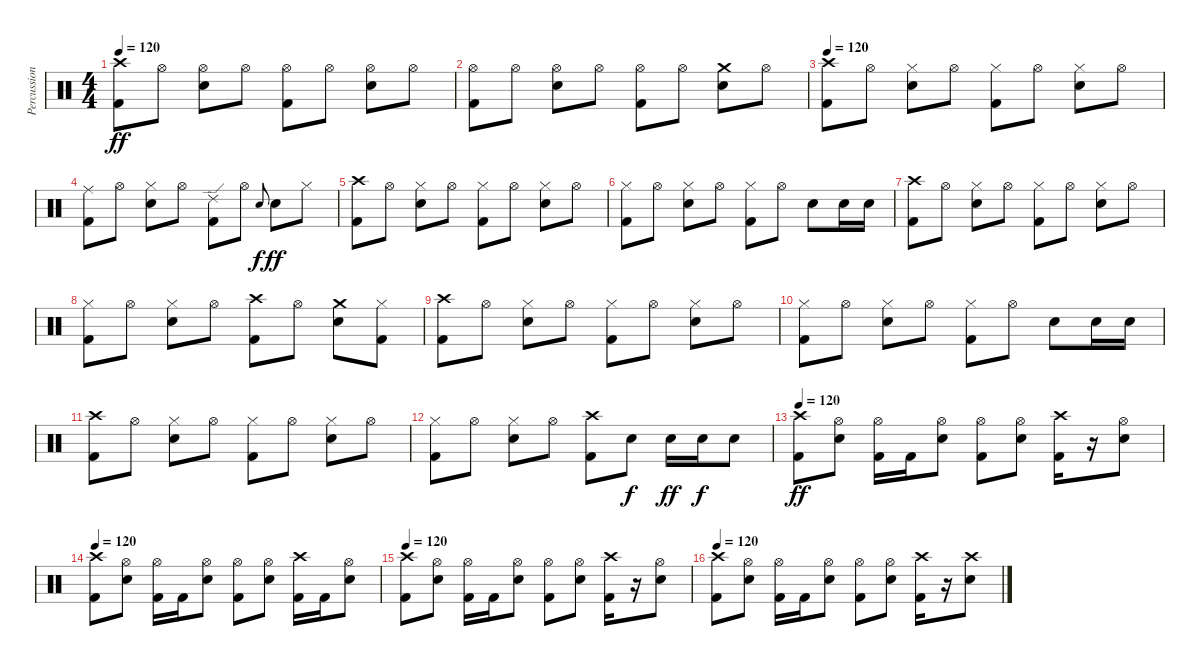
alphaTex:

\track ("Percussion" "Percussion") {instrument percussion}
\staff {score}
\articulation defaults
\ts (4 4)
\tempo 120
\clef neutral
\ks c
("Crash high (hit)" "Kick (hit) 2").8{dy ff} "Hi-Hat (open)".8 ("Hi-Hat (open)" "Snare (hit) 2").8 "Hi-Hat (open)".8 ("Hi-Hat (open)" "Kick (hit) 2").8 "Hi-Hat (open)".8 ("Hi-Hat (open)" "Snare (hit) 2").8 "Hi-Hat (open)".8 |
("Hi-Hat (open)" "Kick (hit) 2").8 "Hi-Hat (open)".8 ("Hi-Hat (open)" "Snare (hit) 2").8 "Hi-Hat (open)".8 ("Hi-Hat (open)" "Kick (hit) 2").8 "Hi-Hat (open)".8 ("Crash medium (hit)" "Snare (hit) 2").8 "Hi-Hat (open)".8 |
\tempo 120
("Crash high (hit)" "Kick (hit) 2").8 "Hi-Hat (open)".8 ("Hi-Hat (closed)" "Snare (hit) 2").8 "Hi-Hat (open)".8 ("Hi-Hat (closed)" "Kick (hit) 2").8 "Hi-Hat (open)".8 ("Hi-Hat (closed)" "Snare (hit) 2").8 "Hi-Hat (open)".8 |
("Ride (middle)" "Kick (hit) 2").8 "Hi-Hat (open)".8 ("Hi-Hat (closed)" "Snare (hit) 2").8 "Hi-Hat (open)".8 ("Ride (edge) 2" "Kick (hit) 2").8 "Hi-Hat (open)".8 "Snare (hit) 2".8{gr onbeat dy f} "Snare (hit) 2".8{dy ff} "Hi-Hat (closed)".8 |
("Crash high (hit)" "Kick (hit) 2").8 "Hi-Hat (open)".8 ("Hi-Hat (closed)" "Snare (hit) 2").8 "Hi-Hat (open)".8 ("Hi-Hat (closed)" "Kick (hit) 2").8 "Hi-Hat (open)".8 ("Hi-Hat (closed)" "Snare (hit) 2").8 "Hi-Hat (open)".8 |
("Hi-Hat (closed)" "Kick (hit) 2").8 "Hi-Hat (open)".8 ("Hi-Hat (closed)" "Snare (hit) 2").8 "Hi-Hat (open)".8 ("Hi-Hat (closed)" "Kick (hit) 2").8 "Hi-Hat (open)".8 "Snare (hit) 2".8 "Snare (hit) 2".16 "Snare (hit) 2".16 |
("Crash high (hit)" "Kick (hit) 2").8 "Hi-Hat (open)".8 ("Hi-Hat (closed)" "Snare (hit) 2").8 "Hi-Hat (open)".8 ("Hi-Hat (closed)" "Kick (hit) 2").8 "Hi-Hat (open)".8 ("Hi-Hat (closed)" "Snare (hit) 2").8 "Hi-Hat (open)".8 |
("Hi-Hat (closed)" "Kick (hit) 2").8 "Hi-Hat (open)".8 ("Hi-Hat (closed)" "Snare (hit) 2").8 "Hi-Hat (open)".8 ("Crash high (hit)" "Kick (hit) 2").8 "Hi-Hat (open)".8 ("Crash medium (hit)" "Snare (hit) 2").8 ("Hi-Hat (closed)" "Kick (hit) 2").8 |
("Crash high (hit)" "Kick (hit) 2").8 "Hi-Hat (open)".8 ("Hi-Hat (closed)" "Snare (hit) 2").8 "Hi-Hat (open)".8 ("Hi-Hat (closed)" "Kick (hit) 2").8 "Hi-Hat (open)".8 ("Hi-Hat (closed)" "Snare (hit) 2").8 "Hi-Hat (open)".8 |
("Hi-Hat (closed)" "Kick (hit) 2").8 "Hi-Hat (open)".8 ("Hi-Hat (closed)" "Snare (hit) 2").8 "Hi-Hat (open)".8 ("Hi-Hat (closed)" "Kick (hit) 2").8 "Hi-Hat (open)".8 "Snare (hit) 2".8 "Snare (hit) 2".16 "Snare (hit) 2".16 |
("Crash high (hit)" "Kick (hit) 2").8 "Hi-Hat (open)".8 ("Hi-Hat (closed)" "Snare (hit) 2").8 "Hi-Hat (open)".8 ("Hi-Hat (closed)" "Kick (hit) 2").8 "Hi-Hat (open)".8 ("Hi-Hat (closed)" "Snare (hit) 2").8 "Hi-Hat (open)".8 |
("Hi-Hat (closed)" "Kick (hit) 2").8 "Hi-Hat (open)".8 ("Hi-Hat (closed)" "Snare (hit) 2").8 "Hi-Hat (open)".8 ("Crash high (hit)" "Kick (hit) 2").8 "Snare (hit) 2".8{dy f} "Snare (hit) 2".16{dy ff} "Snare (hit) 2".16{dy f} "Snare (hit) 2".8 |
\tempo 120
("Crash high (hit)" "Kick (hit) 2").8{dy ff} ("Hi-Hat (open)" "Snare (hit) 2").8 ("Hi-Hat (open)" "Kick (hit) 2").16 "Kick (hit) 2".16 ("Hi-Hat (open)" "Snare (hit) 2").8 ("Hi-Hat (open)" "Kick (hit) 2").8 ("Hi-Hat (open)" "Snare (hit) 2").8 ("Crash high (hit)" "Kick (hit) 2").16 r.16 ("Hi-Hat (open)" "Snare (hit) 2").8 |
\tempo 120
("Crash high (hit)" "Kick (hit) 2").8 ("Hi-Hat (open)" "Snare (hit) 2").8 ("Hi-Hat (open)" "Kick (hit) 2").16 "Kick (hit) 2".16 ("Hi-Hat (open)" "Snare (hit) 2").8 ("Hi-Hat (open)" "Kick (hit) 2").8 ("Hi-Hat (open)" "Snare (hit) 2").8 ("Crash high (hit)" "Kick (hit) 2").16 "Kick (hit) 2".16 ("Hi-Hat (open)" "Snare (hit) 2").8 |
\tempo 120
("Crash high (hit)" "Kick (hit) 2").8 ("Hi-Hat (open)" "Snare (hit) 2").8 ("Hi-Hat (open)" "Kick (hit) 2").16 "Kick (hit) 2".16 ("Hi-Hat (open)" "Snare (hit) 2").8 ("Hi-Hat (open)" "Kick (hit) 2").8 ("Hi-Hat (open)" "Snare (hit) 2").8 ("Crash high (hit)" "Kick (hit) 2").16 r.16 ("Hi-Hat (open)" "Snare (hit) 2").8 |
\tempo 120
("Crash high (hit)" "Kick (hit) 2").8 ("Hi-Hat (open)" "Snare (hit) 2").8 ("Hi-Hat (open)" "Kick (hit) 2").16 "Kick (hit) 2".16 ("Hi-Hat (open)" "Snare (hit) 2").8 ("Hi-Hat (open)" "Kick (hit) 2").8 ("Hi-Hat (open)" "Snare (hit) 2").8 ("Crash high (hit)" "Kick (hit) 2").16 r.16 ("Crash high (hit)" "Snare (hit) 2").8
